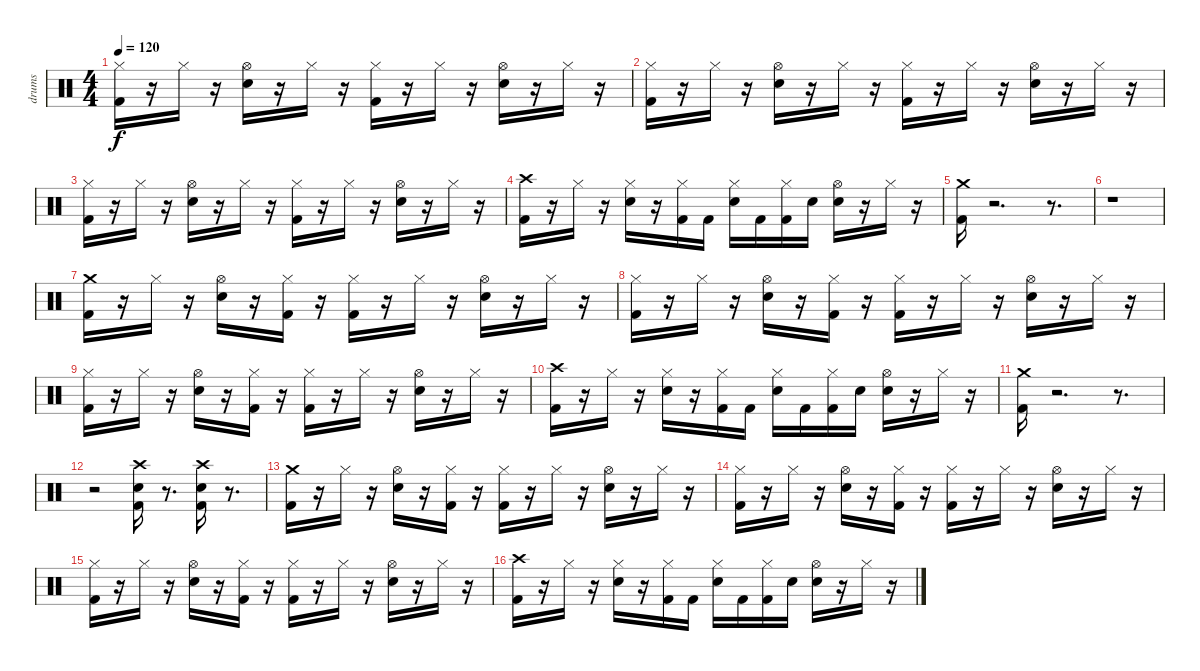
\track ("drums" "drums") {instrument percussion}
\staff {score}
\articulation defaults
\ts (4 4)
\tempo 120
\clef neutral
\ks c
("Hi-Hat (closed)" "Kick (hit) 2").16{dy f} r.16 "Hi-Hat (closed)".16 r.16 ("Hi-Hat (open)" "Snare (hit) 2").16 r.16 "Hi-Hat (closed)".16 r.16 ("Hi-Hat (closed)" "Kick (hit) 2").16 r.16 "Hi-Hat (closed)".16 r.16 ("Hi-Hat (open)" "Electric Snare (hit)").16 r.16 "Hi-Hat (closed)".16 r.16 |
("Hi-Hat (closed)" "Kick (hit) 2").16 r.16 "Hi-Hat (closed)".16 r.16 ("Hi-Hat (open)" "Electric Snare (hit)").16 r.16 "Hi-Hat (closed)".16 r.16 ("Hi-Hat (closed)" "Kick (hit) 2").16 r.16 "Hi-Hat (closed)".16 r.16 ("Hi-Hat (open)" "Snare (hit) 2").16 r.16 "Hi-Hat (closed)".16 r.16 |
("Hi-Hat (closed)" "Kick (hit) 2").16 r.16 "Hi-Hat (closed)".16 r.16 ("Hi-Hat (open)" "Snare (hit) 2").16 r.16 "Hi-Hat (closed)".16 r.16 ("Hi-Hat (closed)" "Kick (hit) 2").16 r.16 "Hi-Hat (closed)".16 r.16 ("Hi-Hat (open)" "Electric Snare (hit)").16 r.16 "Hi-Hat (closed)".16 r.16 |
("Crash high (hit)" "Kick (hit) 2").16 r.16 "Hi-Hat (closed)".16 r.16 ("Hi-Hat (closed)" "Snare (hit) 2").16 r.16 ("Hi-Hat (closed)" "Kick (hit) 2").16 "Kick (hit) 2".16 ("Hi-Hat (closed)" "Electric Snare (hit)").16 "Kick (hit) 2".16 ("Hi-Hat (closed)" "Kick (hit) 2").16 "Electric Snare (hit)".16 ("Hi-Hat (open)" "Electric Snare (hit)").16 r.16 "Hi-Hat (closed)".16 r.16 |
("Crash medium (hit)" "Kick (hit) 2").16 r.2{d} r.8{d} |
r.1 |
("Crash medium (hit)" "Kick (hit) 2").16 r.16 "Hi-Hat (closed)".16 r.16 ("Hi-Hat (open)" "Electric Snare (hit)").16 r.16 ("Hi-Hat (closed)" "Kick (hit) 2").16 r.16 ("Hi-Hat (closed)" "Kick (hit) 2").16 r.16 "Hi-Hat (closed)".16 r.16 ("Hi-Hat (open)" "Snare (hit) 2").16 r.16 "Hi-Hat (closed)".16 r.16 |
("Hi-Hat (closed)" "Kick (hit) 2").16 r.16 "Hi-Hat (closed)".16 r.16 ("Hi-Hat (open)" "Snare (hit) 2").16 r.16 ("Hi-Hat (closed)" "Kick (hit) 2").16 r.16 ("Hi-Hat (closed)" "Kick (hit) 2").16 r.16 "Hi-Hat (closed)".16 r.16 ("Hi-Hat (open)" "Snare (hit) 2").16 r.16 "Hi-Hat (closed)".16 r.16 |
("Hi-Hat (closed)" "Kick (hit) 2").16 r.16 "Hi-Hat (closed)".16 r.16 ("Hi-Hat (open)" "Snare (hit) 2").16 r.16 ("Hi-Hat (closed)" "Kick (hit) 2").16 r.16 ("Hi-Hat (closed)" "Kick (hit) 2").16 r.16 "Hi-Hat (closed)".16 r.16 ("Hi-Hat (open)" "Snare (hit) 2").16 r.16 "Hi-Hat (closed)".16 r.16 |
("Crash high (hit)" "Kick (hit) 2").16 r.16 "Hi-Hat (closed)".16 r.16 ("Hi-Hat (closed)" "Snare (hit) 2").16 r.16 ("Hi-Hat (closed)" "Kick (hit) 2").16 "Kick (hit) 2".16 ("Hi-Hat (closed)" "Electric Snare (hit)").16 "Kick (hit) 2".16 ("Hi-Hat (closed)" "Kick (hit) 2").16 "Electric Snare (hit)".16 ("Hi-Hat (open)" "Electric Snare (hit)").16 r.16 "Hi-Hat (closed)".16 r.16 |
("Crash medium (hit)" "Kick (hit) 2").16 r.2{d} r.8{d} |
r.2 ("Crash high (hit)" "Kick (hit) 2" "Electric Snare (hit)").16 r.8{d} ("Crash high (hit)" "Kick (hit) 2" "Electric Snare (hit)").16 r.8{d} |
("Crash medium (hit)" "Kick (hit) 2").16 r.16 "Hi-Hat (closed)".16 r.16 ("Hi-Hat (open)" "Electric Snare (hit)").16 r.16 ("Hi-Hat (closed)" "Kick (hit) 2").16 r.16 ("Hi-Hat (closed)" "Kick (hit) 2").16 r.16 "Hi-Hat (closed)".16 r.16 ("Hi-Hat (open)" "Snare (hit) 2").16 r.16 "Hi-Hat (closed)".16 r.16 |
("Hi-Hat (closed)" "Kick (hit) 2").16 r.16 "Hi-Hat (closed)".16 r.16 ("Hi-Hat (open)" "Snare (hit) 2").16 r.16 ("Hi-Hat (closed)" "Kick (hit) 2").16 r.16 ("Hi-Hat (closed)" "Kick (hit) 2").16 r.16 "Hi-Hat (closed)".16 r.16 ("Hi-Hat (open)" "Snare (hit) 2").16 r.16 "Hi-Hat (closed)".16 r.16 |
("Hi-Hat (closed)" "Kick (hit) 2").16 r.16 "Hi-Hat (closed)".16 r.16 ("Hi-Hat (open)" "Snare (hit) 2").16 r.16 ("Hi-Hat (closed)" "Kick (hit) 2").16 r.16 ("Hi-Hat (closed)" "Kick (hit) 2").16 r.16 "Hi-Hat (closed)".16 r.16 ("Hi-Hat (open)" "Snare (hit) 2").16 r.16 "Hi-Hat (closed)".16 r.16 |
("Crash high (hit)" "Kick (hit) 2").16 r.16 "Hi-Hat (closed)".16 r.16 ("Hi-Hat (closed)" "Snare (hit) 2").16 r.16 ("Hi-Hat (closed)" "Kick (hit) 2").16 "Kick (hit) 2".16 ("Hi-Hat (closed)" "Electric Snare (hit)").16 "Kick (hit) 2".16 ("Hi-Hat (closed)" "Kick (hit) 2").16 "Electric Snare (hit)".16 ("Hi-Hat (open)" "Electric Snare (hit)").16 r.16 "Hi-Hat (closed)".16 r.16
